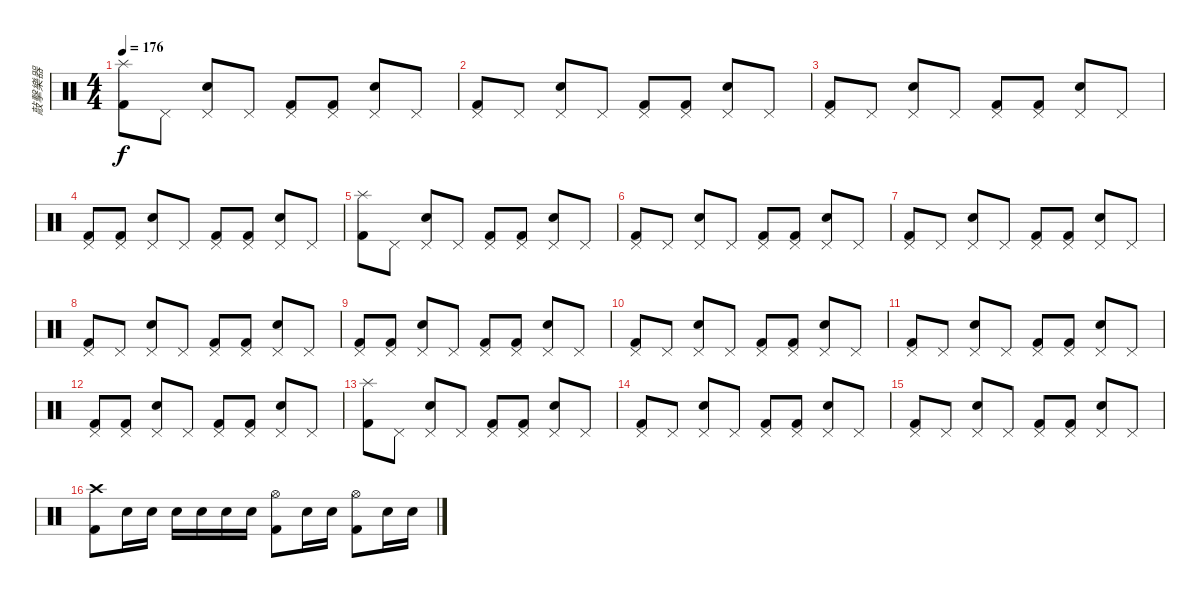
\track ("敲擊樂器" "敲擊樂器") {instrument percussion}
\staff {score}
\articulation defaults
\ts (4 4)
\tempo 176
\clef neutral
\ks c
("Splash (hit)" "Kick (hit) 2").8{dy f} "Pedal Hi-Hat (hit)".8 ("Snare (hit) 2" "Pedal Hi-Hat (hit)").8 "Pedal Hi-Hat (hit)".8 ("Pedal Hi-Hat (hit)" "Kick (hit) 2").8 ("Kick (hit) 2" "Pedal Hi-Hat (hit)").8 ("Pedal Hi-Hat (hit)" "Snare (hit) 2").8 "Pedal Hi-Hat (hit)".8 |
("Pedal Hi-Hat (hit)" "Kick (hit) 2").8 "Pedal Hi-Hat (hit)".8 ("Snare (hit) 2" "Pedal Hi-Hat (hit)").8 "Pedal Hi-Hat (hit)".8 ("Pedal Hi-Hat (hit)" "Kick (hit) 2").8 ("Kick (hit) 2" "Pedal Hi-Hat (hit)").8 ("Pedal Hi-Hat (hit)" "Snare (hit) 2").8 "Pedal Hi-Hat (hit)".8 |
("Pedal Hi-Hat (hit)" "Kick (hit) 2").8 "Pedal Hi-Hat (hit)".8 ("Snare (hit) 2" "Pedal Hi-Hat (hit)").8 "Pedal Hi-Hat (hit)".8 ("Pedal Hi-Hat (hit)" "Kick (hit) 2").8 ("Kick (hit) 2" "Pedal Hi-Hat (hit)").8 ("Pedal Hi-Hat (hit)" "Snare (hit) 2").8 "Pedal Hi-Hat (hit)".8 |
("Pedal Hi-Hat (hit)" "Kick (hit) 2").8 ("Pedal Hi-Hat (hit)" "Kick (hit) 2").8 ("Snare (hit) 2" "Pedal Hi-Hat (hit)").8 "Pedal Hi-Hat (hit)".8 ("Pedal Hi-Hat (hit)" "Kick (hit) 2").8 ("Kick (hit) 2" "Pedal Hi-Hat (hit)").8 ("Pedal Hi-Hat (hit)" "Snare (hit) 2").8 "Pedal Hi-Hat (hit)".8 |
("Splash (hit)" "Kick (hit) 2").8 "Pedal Hi-Hat (hit)".8 ("Snare (hit) 2" "Pedal Hi-Hat (hit)").8 "Pedal Hi-Hat (hit)".8 ("Pedal Hi-Hat (hit)" "Kick (hit) 2").8 ("Kick (hit) 2" "Pedal Hi-Hat (hit)").8 ("Pedal Hi-Hat (hit)" "Snare (hit) 2").8 "Pedal Hi-Hat (hit)".8 |
("Pedal Hi-Hat (hit)" "Kick (hit) 2").8 "Pedal Hi-Hat (hit)".8 ("Snare (hit) 2" "Pedal Hi-Hat (hit)").8 "Pedal Hi-Hat (hit)".8 ("Pedal Hi-Hat (hit)" "Kick (hit) 2").8 ("Kick (hit) 2" "Pedal Hi-Hat (hit)").8 ("Pedal Hi-Hat (hit)" "Snare (hit) 2").8 "Pedal Hi-Hat (hit)".8 |
("Pedal Hi-Hat (hit)" "Kick (hit) 2").8 "Pedal Hi-Hat (hit)".8 ("Snare (hit) 2" "Pedal Hi-Hat (hit)").8 "Pedal Hi-Hat (hit)".8 ("Pedal Hi-Hat (hit)" "Kick (hit) 2").8 ("Kick (hit) 2" "Pedal Hi-Hat (hit)").8 ("Pedal Hi-Hat (hit)" "Snare (hit) 2").8 "Pedal Hi-Hat (hit)".8 |
("Pedal Hi-Hat (hit)" "Kick (hit) 2").8 "Pedal Hi-Hat (hit)".8 ("Snare (hit) 2" "Pedal Hi-Hat (hit)").8 "Pedal Hi-Hat (hit)".8 ("Pedal Hi-Hat (hit)" "Kick (hit) 2").8 ("Kick (hit) 2" "Pedal Hi-Hat (hit)").8 ("Pedal Hi-Hat (hit)" "Snare (hit) 2").8 "Pedal Hi-Hat (hit)".8 |
("Pedal Hi-Hat (hit)" "Kick (hit) 2").8 ("Pedal Hi-Hat (hit)" "Kick (hit) 2").8 ("Snare (hit) 2" "Pedal Hi-Hat (hit)").8 "Pedal Hi-Hat (hit)".8 ("Pedal Hi-Hat (hit)" "Kick (hit) 2").8 ("Kick (hit) 2" "Pedal Hi-Hat (hit)").8 ("Pedal Hi-Hat (hit)" "Snare (hit) 2").8 "Pedal Hi-Hat (hit)".8 |
("Pedal Hi-Hat (hit)" "Kick (hit) 2").8 "Pedal Hi-Hat (hit)".8 ("Snare (hit) 2" "Pedal Hi-Hat (hit)").8 "Pedal Hi-Hat (hit)".8 ("Pedal Hi-Hat (hit)" "Kick (hit) 2").8 ("Kick (hit) 2" "Pedal Hi-Hat (hit)").8 ("Pedal Hi-Hat (hit)" "Snare (hit) 2").8 "Pedal Hi-Hat (hit)".8 |
("Pedal Hi-Hat (hit)" "Kick (hit) 2").8 "Pedal Hi-Hat (hit)".8 ("Snare (hit) 2" "Pedal Hi-Hat (hit)").8 "Pedal Hi-Hat (hit)".8 ("Pedal Hi-Hat (hit)" "Kick (hit) 2").8 ("Kick (hit) 2" "Pedal Hi-Hat (hit)").8 ("Pedal Hi-Hat (hit)" "Snare (hit) 2").8 "Pedal Hi-Hat (hit)".8 |
("Pedal Hi-Hat (hit)" "Kick (hit) 2").8 ("Pedal Hi-Hat (hit)" "Kick (hit) 2").8 ("Snare (hit) 2" "Pedal Hi-Hat (hit)").8 "Pedal Hi-Hat (hit)".8 ("Pedal Hi-Hat (hit)" "Kick (hit) 2").8 ("Kick (hit) 2" "Pedal Hi-Hat (hit)").8 ("Pedal Hi-Hat (hit)" "Snare (hit) 2").8 "Pedal Hi-Hat (hit)".8 |
("Splash (hit)" "Kick (hit) 2").8 "Pedal Hi-Hat (hit)".8 ("Snare (hit) 2" "Pedal Hi-Hat (hit)").8 "Pedal Hi-Hat (hit)".8 ("Pedal Hi-Hat (hit)" "Kick (hit) 2").8 ("Kick (hit) 2" "Pedal Hi-Hat (hit)").8 ("Pedal Hi-Hat (hit)" "Snare (hit) 2").8 "Pedal Hi-Hat (hit)".8 |
("Pedal Hi-Hat (hit)" "Kick (hit) 2").8 "Pedal Hi-Hat (hit)".8 ("Snare (hit) 2" "Pedal Hi-Hat (hit)").8 "Pedal Hi-Hat (hit)".8 ("Pedal Hi-Hat (hit)" "Kick (hit) 2").8 ("Kick (hit) 2" "Pedal Hi-Hat (hit)").8 ("Pedal Hi-Hat (hit)" "Snare (hit) 2").8 "Pedal Hi-Hat (hit)".8 |
("Pedal Hi-Hat (hit)" "Kick (hit) 2").8 "Pedal Hi-Hat (hit)".8 ("Snare (hit) 2" "Pedal Hi-Hat (hit)").8 "Pedal Hi-Hat (hit)".8 ("Pedal Hi-Hat (hit)" "Kick (hit) 2").8 ("Kick (hit) 2" "Pedal Hi-Hat (hit)").8 ("Pedal Hi-Hat (hit)" "Snare (hit) 2").8 "Pedal Hi-Hat (hit)".8 |
("Crash high (hit)" "Kick (hit) 2").8 "Snare (hit) 2".16 "Snare (hit) 2".16 "Snare (hit) 2".16 "Snare (hit) 2".16 "Snare (hit) 2".16 "Snare (hit) 2".16 ("Hi-Hat (open)" "Kick (hit) 2").8 "Snare (hit) 2".16 "Snare (hit) 2".16 ("Hi-Hat (open)" "Kick (hit) 2").8 "Snare (hit) 2".16 "Snare (hit) 2".16
